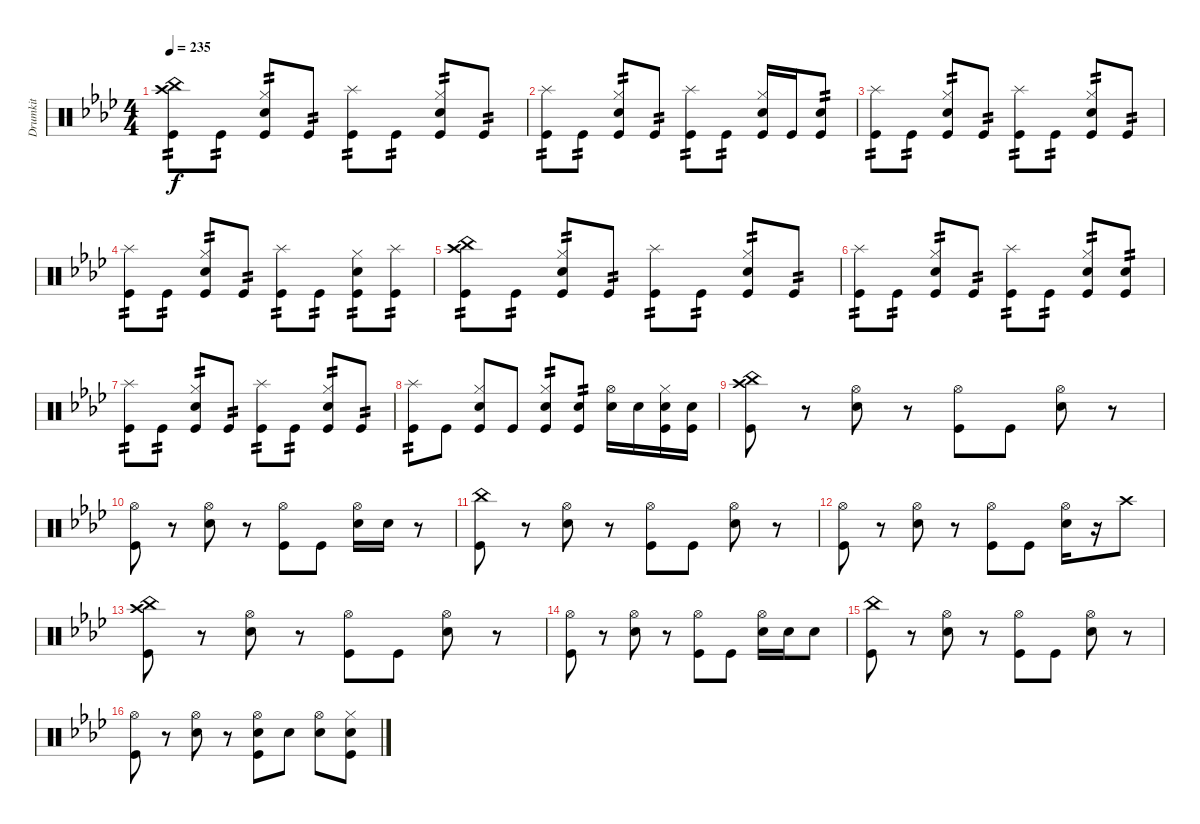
\track ("Drumkit" "Drumkit") {instrument percussion}
\staff {score}
\articulation defaults
\ts (4 4)
\tempo 235
\clef neutral
\ks ab
("Crash high (hit)" "China (hit)" "Kick (hit)").8{tp 2 dy f} "Kick (hit)".8{tp 2} ("Hi-Hat (closed)" "Electric Snare (hit)" "Kick (hit)").8{tp 2} "Kick (hit)".8{tp 2} ("Splash (hit)" "Kick (hit)").8{tp 2} "Kick (hit)".8{tp 2} ("Hi-Hat (closed)" "Electric Snare (hit)" "Kick (hit)").8{tp 2} "Kick (hit)".8{tp 2} |
("Splash (hit)" "Kick (hit)").8{tp 2} "Kick (hit)".8{tp 2} ("Hi-Hat (closed)" "Electric Snare (hit)" "Kick (hit)").8{tp 2} "Kick (hit)".8{tp 2} ("Splash (hit)" "Kick (hit)").8{tp 2} "Kick (hit)".8{tp 2} ("Hi-Hat (closed)" "Electric Snare (hit)" "Kick (hit)").16 "Kick (hit)".16 ("Electric Snare (hit)" "Kick (hit)").8{tp 2} |
("Splash (hit)" "Kick (hit)").8{tp 2} "Kick (hit)".8{tp 2} ("Hi-Hat (closed)" "Electric Snare (hit)" "Kick (hit)").8{tp 2} "Kick (hit)".8{tp 2} ("Splash (hit)" "Kick (hit)").8{tp 2} "Kick (hit)".8{tp 2} ("Hi-Hat (closed)" "Electric Snare (hit)" "Kick (hit)").8{tp 2} "Kick (hit)".8{tp 2} |
("Splash (hit)" "Kick (hit)").8{tp 2} "Kick (hit)".8{tp 2} ("Hi-Hat (closed)" "Electric Snare (hit)" "Kick (hit)").8{tp 2} "Kick (hit)".8{tp 2} ("Splash (hit)" "Kick (hit)").8{tp 2} "Kick (hit)".8{tp 2} ("Hi-Hat (closed)" "Electric Snare (hit)" "Kick (hit)").8{tp 2} ("Splash (hit)" "Kick (hit)").8{tp 2} |
("Crash high (hit)" "China (hit)" "Kick (hit)").8{tp 2} "Kick (hit)".8{tp 2} ("Hi-Hat (closed)" "Electric Snare (hit)" "Kick (hit)").8{tp 2} "Kick (hit)".8{tp 2} ("Splash (hit)" "Kick (hit)").8{tp 2} "Kick (hit)".8{tp 2} ("Hi-Hat (closed)" "Electric Snare (hit)" "Kick (hit)").8{tp 2} "Kick (hit)".8{tp 2} |
("Splash (hit)" "Kick (hit)").8{tp 2} "Kick (hit)".8{tp 2} ("Hi-Hat (closed)" "Electric Snare (hit)" "Kick (hit)").8{tp 2} "Kick (hit)".8{tp 2} ("Splash (hit)" "Kick (hit)").8{tp 2} "Kick (hit)".8{tp 2} ("Hi-Hat (closed)" "Electric Snare (hit)" "Kick (hit)").8{tp 2} ("Electric Snare (hit)" "Kick (hit)").8{tp 2} |
("Splash (hit)" "Kick (hit)").8{tp 2} "Kick (hit)".8{tp 2} ("Hi-Hat (closed)" "Electric Snare (hit)" "Kick (hit)").8{tp 2} "Kick (hit)".8{tp 2} ("Splash (hit)" "Kick (hit)").8{tp 2} "Kick (hit)".8{tp 2} ("Hi-Hat (closed)" "Electric Snare (hit)" "Kick (hit)").8{tp 2} "Kick (hit)".8{tp 2} |
("Splash (hit)" "Kick (hit)").8{tp 2} "Kick (hit)".8 ("Hi-Hat (closed)" "Electric Snare (hit)" "Kick (hit)").8 "Kick (hit)".8 ("Hi-Hat (closed)" "Electric Snare (hit)" "Kick (hit)").8{tp 2} ("Electric Snare (hit)" "Kick (hit)").8{tp 2} ("Hi-Hat (open)" "Electric Snare (hit)").16 "Electric Snare (hit)".16 ("Hi-Hat (closed)" "Electric Snare (hit)" "Kick (hit)").16 ("Electric Snare (hit)" "Kick (hit)").16 |
("Crash high (hit)" "China (hit)" "Kick (hit)").8 r.8 ("Hi-Hat (open)" "Electric Snare (hit)").8 r.8 ("Hi-Hat (open)" "Kick (hit)").8 "Kick (hit)".8 ("Hi-Hat (open)" "Electric Snare (hit)").8 r.8 |
("Hi-Hat (open)" "Kick (hit)").8 r.8 ("Hi-Hat (open)" "Electric Snare (hit)").8 r.8 ("Hi-Hat (open)" "Kick (hit)").8 "Kick (hit)".8 ("Hi-Hat (open)" "Electric Snare (hit)").16 "Electric Snare (hit)".16 r.8 |
("China (hit)" "Kick (hit)").8 r.8 ("Hi-Hat (open)" "Electric Snare (hit)").8 r.8 ("Hi-Hat (open)" "Kick (hit)").8 "Kick (hit)".8 ("Hi-Hat (open)" "Electric Snare (hit)").8 r.8 |
("Hi-Hat (open)" "Kick (hit)").8 r.8 ("Hi-Hat (open)" "Electric Snare (hit)").8 r.8 ("Hi-Hat (open)" "Kick (hit)").8 "Kick (hit)".8 ("Hi-Hat (open)" "Electric Snare (hit)").16 r.16 "Crash high (hit)".8 |
("Crash high (hit)" "China (hit)" "Kick (hit)").8 r.8 ("Hi-Hat (open)" "Electric Snare (hit)").8 r.8 ("Hi-Hat (open)" "Kick (hit)").8 "Kick (hit)".8 ("Hi-Hat (open)" "Electric Snare (hit)").8 r.8 |
("Hi-Hat (open)" "Kick (hit)").8 r.8 ("Hi-Hat (open)" "Electric Snare (hit)").8 r.8 ("Hi-Hat (open)" "Kick (hit)").8 "Kick (hit)".8 ("Hi-Hat (open)" "Electric Snare (hit)").16 "Electric Snare (hit)".16 "Electric Snare (hit)".8 |
("China (hit)" "Kick (hit)").8 r.8 ("Hi-Hat (open)" "Electric Snare (hit)").8 r.8 ("Hi-Hat (open)" "Kick (hit)").8 "Kick (hit)".8 ("Hi-Hat (open)" "Electric Snare (hit)").8 r.8 |
("Hi-Hat (open)" "Kick (hit)").8 r.8 ("Hi-Hat (open)" "Electric Snare (hit)").8 r.8 ("Hi-Hat (open)" "Electric Snare (hit)" "Kick (hit)").8 "Electric Snare (hit)".8 ("Hi-Hat (open)" "Electric Snare (hit)").8 ("Hi-Hat (closed)" "Electric Snare (hit)" "Kick (hit)").8
